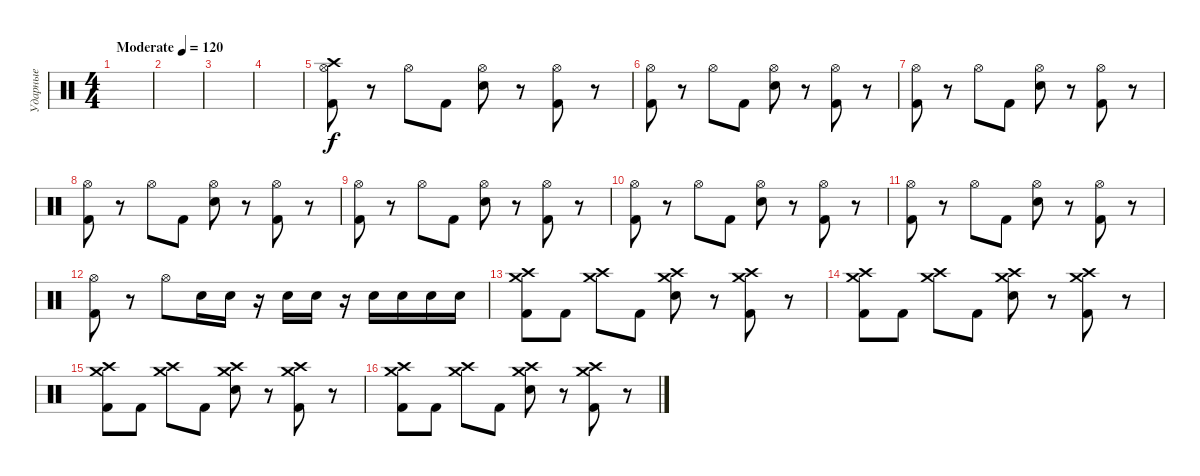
\track ("Ударные" "Ударные") {instrument percussion}
\staff {score}
\articulation defaults
\ts (4 4)
\tempo (120 "Moderate")
\clef neutral
\ks c
|
|
|
|
("Crash high (hit)" "Hi-Hat (open)" "Kick (hit) 2").8 r.8 "Hi-Hat (open)".8 "Kick (hit) 2".8 ("Hi-Hat (open)" "Electric Snare (hit)").8 r.8 ("Hi-Hat (open)" "Kick (hit) 2").8 r.8 |
("Hi-Hat (open)" "Kick (hit) 2").8 r.8 "Hi-Hat (open)".8 "Kick (hit) 2".8 ("Hi-Hat (open)" "Electric Snare (hit)").8 r.8 ("Hi-Hat (open)" "Kick (hit) 2").8 r.8 |
("Hi-Hat (open)" "Kick (hit) 2").8 r.8 "Hi-Hat (open)".8 "Kick (hit) 2".8 ("Hi-Hat (open)" "Electric Snare (hit)").8 r.8 ("Hi-Hat (open)" "Kick (hit) 2").8 r.8 |
("Hi-Hat (open)" "Kick (hit) 2").8 r.8 "Hi-Hat (open)".8 "Kick (hit) 2".8 ("Hi-Hat (open)" "Electric Snare (hit)").8 r.8 ("Hi-Hat (open)" "Kick (hit) 2").8 r.8 |
("Hi-Hat (open)" "Kick (hit) 2").8 r.8 "Hi-Hat (open)".8 "Kick (hit) 2".8 ("Hi-Hat (open)" "Electric Snare (hit)").8 r.8 ("Hi-Hat (open)" "Kick (hit) 2").8 r.8 |
("Hi-Hat (open)" "Kick (hit) 2").8 r.8 "Hi-Hat (open)".8 "Kick (hit) 2".8 ("Hi-Hat (open)" "Electric Snare (hit)").8 r.8 ("Hi-Hat (open)" "Kick (hit) 2").8 r.8 |
("Hi-Hat (open)" "Kick (hit) 2").8 r.8 "Hi-Hat (open)".8 "Kick (hit) 2".8 ("Hi-Hat (open)" "Electric Snare (hit)").8 r.8 ("Hi-Hat (open)" "Kick (hit) 2").8 r.8 |
("Hi-Hat (open)" "Kick (hit) 2").8 r.8 "Hi-Hat (open)".8 "Electric Snare (hit)".16 "Electric Snare (hit)".16 r.16 "Electric Snare (hit)".16 "Electric Snare (hit)".16 r.16 "Electric Snare (hit)".16 "Electric Snare (hit)".16 "Electric Snare (hit)".16 "Electric Snare (hit)".16 |
("Crash high (hit)" "Crash medium (hit)" "Kick (hit) 2").8 "Kick (hit) 2".8 ("Crash high (hit)" "Crash medium (hit)").8 "Kick (hit) 2".8 ("Crash high (hit)" "Crash medium (hit)" "Electric Snare (hit)").8 r.8 ("Crash high (hit)" "Crash medium (hit)" "Kick (hit) 2").8 r.8 |
("Crash high (hit)" "Crash medium (hit)" "Kick (hit) 2").8 "Kick (hit) 2".8 ("Crash high (hit)" "Crash medium (hit)").8 "Kick (hit) 2".8 ("Crash high (hit)" "Crash medium (hit)" "Electric Snare (hit)").8 r.8 ("Crash high (hit)" "Crash medium (hit)" "Kick (hit) 2").8 r.8 |
("Crash high (hit)" "Crash medium (hit)" "Kick (hit) 2").8 "Kick (hit) 2".8 ("Crash high (hit)" "Crash medium (hit)").8 "Kick (hit) 2".8 ("Crash high (hit)" "Crash medium (hit)" "Electric Snare (hit)").8 r.8 ("Crash high (hit)" "Crash medium (hit)" "Kick (hit) 2").8 r.8 |
("Crash high (hit)" "Crash medium (hit)" "Kick (hit) 2").8 "Kick (hit) 2".8 ("Crash high (hit)" "Crash medium (hit)").8 "Kick (hit) 2".8 ("Crash high (hit)" "Crash medium (hit)" "Electric Snare (hit)").8 r.8 ("Crash high (hit)" "Crash medium (hit)" "Kick (hit) 2").8 r.8
